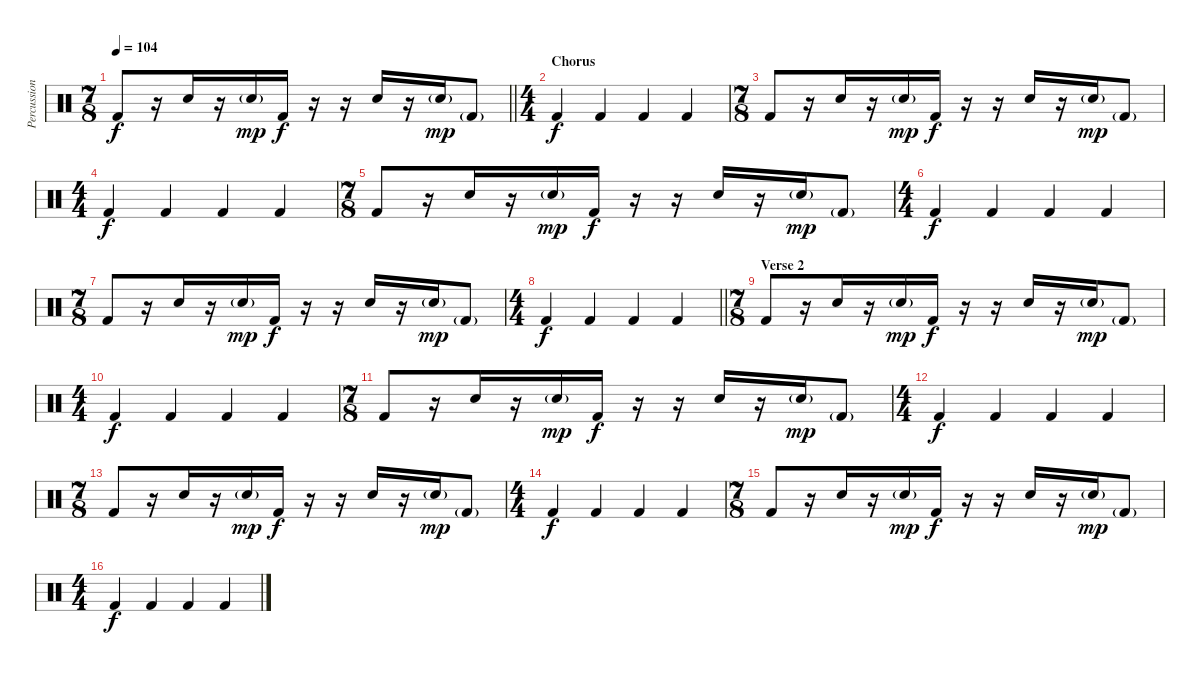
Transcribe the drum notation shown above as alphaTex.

\track ("Percussion" "Percussion") {instrument percussion}
\staff {score}
\articulation defaults
\ts (7 8)
\tempo 104
\clef neutral
\barLineRight lightlight
\ks c "Kick (hit) 2".8{dy f}
r.16 "Snare (hit) 2".16 r.16 "Snare (hit) 2"{g}.16{dy mp} "Kick (hit) 2".16{dy f} r.16 r.16 "Snare (hit) 2".16 r.16 "Snare (hit) 2"{g}.16{dy mp} "Kick (hit) 2"{g}.8 |
\ts (4 4)
\section ("" "Chorus")
"Kick (hit) 2".4{dy f} "Kick (hit) 2".4 "Kick (hit) 2".4 "Kick (hit) 2".4 |
\ts (7 8)
"Kick (hit) 2".8 r.16 "Snare (hit) 2".16 r.16 "Snare (hit) 2"{g}.16{dy mp} "Kick (hit) 2".16{dy f} r.16 r.16 "Snare (hit) 2".16 r.16 "Snare (hit) 2"{g}.16{dy mp} "Kick (hit) 2"{g}.8 |
\ts (4 4)
"Kick (hit) 2".4{dy f} "Kick (hit) 2".4 "Kick (hit) 2".4 "Kick (hit) 2".4 |
\ts (7 8)
"Kick (hit) 2".8 r.16 "Snare (hit) 2".16 r.16 "Snare (hit) 2"{g}.16{dy mp} "Kick (hit) 2".16{dy f} r.16 r.16 "Snare (hit) 2".16 r.16 "Snare (hit) 2"{g}.16{dy mp} "Kick (hit) 2"{g}.8 |
\ts (4 4)
"Kick (hit) 2".4{dy f} "Kick (hit) 2".4 "Kick (hit) 2".4 "Kick (hit) 2".4 |
\ts (7 8)
"Kick (hit) 2".8 r.16 "Snare (hit) 2".16 r.16 "Snare (hit) 2"{g}.16{dy mp} "Kick (hit) 2".16{dy f} r.16 r.16 "Snare (hit) 2".16 r.16 "Snare (hit) 2"{g}.16{dy mp} "Kick (hit) 2"{g}.8 |
\ts (4 4)
\barLineRight lightlight "Kick (hit) 2".4{dy f} "Kick (hit) 2".4 "Kick (hit) 2".4 "Kick (hit) 2".4
|
\ts (7 8)
\section ("" "Verse 2")
"Kick (hit) 2".8 r.16 "Snare (hit) 2".16 r.16 "Snare (hit) 2"{g}.16{dy mp} "Kick (hit) 2".16{dy f} r.16 r.16 "Snare (hit) 2".16 r.16 "Snare (hit) 2"{g}.16{dy mp} "Kick (hit) 2"{g}.8 |
\ts (4 4)
"Kick (hit) 2".4{dy f} "Kick (hit) 2".4 "Kick (hit) 2".4 "Kick (hit) 2".4 |
\ts (7 8)
"Kick (hit) 2".8 r.16 "Snare (hit) 2".16 r.16 "Snare (hit) 2"{g}.16{dy mp} "Kick (hit) 2".16{dy f} r.16 r.16 "Snare (hit) 2".16 r.16 "Snare (hit) 2"{g}.16{dy mp} "Kick (hit) 2"{g}.8 |
\ts (4 4)
"Kick (hit) 2".4{dy f} "Kick (hit) 2".4 "Kick (hit) 2".4 "Kick (hit) 2".4 |
\ts (7 8)
"Kick (hit) 2".8 r.16 "Snare (hit) 2".16 r.16 "Snare (hit) 2"{g}.16{dy mp} "Kick (hit) 2".16{dy f} r.16 r.16 "Snare (hit) 2".16 r.16 "Snare (hit) 2"{g}.16{dy mp} "Kick (hit) 2"{g}.8 |
\ts (4 4)
"Kick (hit) 2".4{dy f} "Kick (hit) 2".4 "Kick (hit) 2".4 "Kick (hit) 2".4 |
\ts (7 8)
"Kick (hit) 2".8 r.16 "Snare (hit) 2".16 r.16 "Snare (hit) 2"{g}.16{dy mp} "Kick (hit) 2".16{dy f} r.16 r.16 "Snare (hit) 2".16 r.16 "Snare (hit) 2"{g}.16{dy mp} "Kick (hit) 2"{g}.8 |
\ts (4 4)
"Kick (hit) 2".4{dy f} "Kick (hit) 2".4 "Kick (hit) 2".4 "Kick (hit) 2".4
